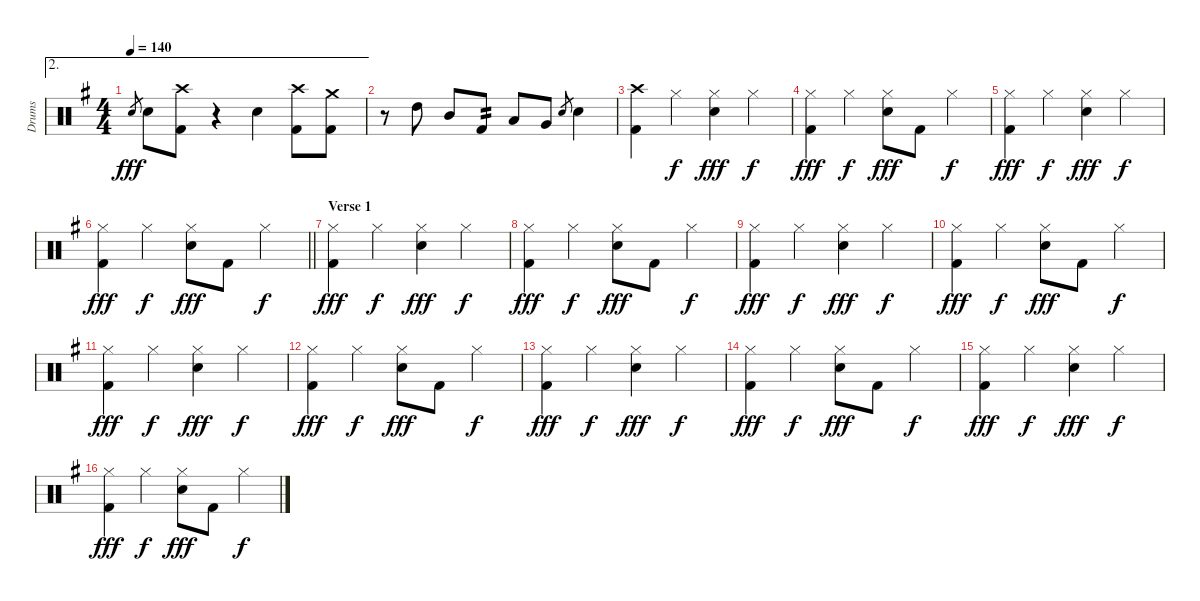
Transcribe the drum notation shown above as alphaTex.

\track ("Drums" "Drums") {instrument percussion}
\staff {score}
\articulation defaults
\ae 2
\ts (4 4)
\tempo 140
\clef neutral
\ks eminor "Electric Snare (hit)".8{gr dy fff} "Electric Snare (hit)".8
("Crash high (hit)" "Kick (hit) 2").8 r.4 "Electric Snare (hit)".4 ("Crash high (hit)" "Kick (hit) 2").8 ("Crash medium (hit)" "Kick (hit) 2").8 |
r.8 "High Tom (hit)".8 "Mid Tom (hit)".8 "Kick (hit) 2".8{tp 2} "Low Tom (hit)".8 "Very Low Tom (hit)".8 "Electric Snare (hit)".8{gr} "Electric Snare (hit)".4 |
("Crash high (hit)" "Kick (hit) 2").4 "Hi-Hat (closed)".4{dy f} ("Electric Snare (hit)" "Hi-Hat (closed)").4{dy fff} "Hi-Hat (closed)".4{dy f} |
("Hi-Hat (closed)" "Kick (hit) 2").4{dy fff} "Hi-Hat (closed)".4{dy f} ("Electric Snare (hit)" "Hi-Hat (closed)").8{dy fff} "Kick (hit) 2".8 "Hi-Hat (closed)".4{dy f} |
("Hi-Hat (closed)" "Kick (hit) 2").4{dy fff} "Hi-Hat (closed)".4{dy f} ("Electric Snare (hit)" "Hi-Hat (closed)").4{dy fff} "Hi-Hat (closed)".4{dy f} |
\barLineRight lightlight
("Hi-Hat (closed)" "Kick (hit) 2").4{dy fff} "Hi-Hat (closed)".4{dy f} ("Electric Snare (hit)" "Hi-Hat (closed)").8{dy fff} "Kick (hit) 2".8 "Hi-Hat (closed)".4{dy f} |
\section ("" "Verse 1")
("Hi-Hat (closed)" "Kick (hit) 2").4{dy fff} "Hi-Hat (closed)".4{dy f} ("Electric Snare (hit)" "Hi-Hat (closed)").4{dy fff} "Hi-Hat (closed)".4{dy f} |
("Hi-Hat (closed)" "Kick (hit) 2").4{dy fff} "Hi-Hat (closed)".4{dy f} ("Electric Snare (hit)" "Hi-Hat (closed)").8{dy fff} "Kick (hit) 2".8 "Hi-Hat (closed)".4{dy f} |
("Hi-Hat (closed)" "Kick (hit) 2").4{dy fff} "Hi-Hat (closed)".4{dy f} ("Electric Snare (hit)" "Hi-Hat (closed)").4{dy fff} "Hi-Hat (closed)".4{dy f} |
("Hi-Hat (closed)" "Kick (hit) 2").4{dy fff} "Hi-Hat (closed)".4{dy f} ("Electric Snare (hit)" "Hi-Hat (closed)").8{dy fff} "Kick (hit) 2".8 "Hi-Hat (closed)".4{dy f} |
("Hi-Hat (closed)" "Kick (hit) 2").4{dy fff} "Hi-Hat (closed)".4{dy f} ("Electric Snare (hit)" "Hi-Hat (closed)").4{dy fff} "Hi-Hat (closed)".4{dy f} |
("Hi-Hat (closed)" "Kick (hit) 2").4{dy fff} "Hi-Hat (closed)".4{dy f} ("Electric Snare (hit)" "Hi-Hat (closed)").8{dy fff} "Kick (hit) 2".8 "Hi-Hat (closed)".4{dy f} |
("Hi-Hat (closed)" "Kick (hit) 2").4{dy fff} "Hi-Hat (closed)".4{dy f} ("Electric Snare (hit)" "Hi-Hat (closed)").4{dy fff} "Hi-Hat (closed)".4{dy f} |
("Hi-Hat (closed)" "Kick (hit) 2").4{dy fff} "Hi-Hat (closed)".4{dy f} ("Electric Snare (hit)" "Hi-Hat (closed)").8{dy fff} "Kick (hit) 2".8 "Hi-Hat (closed)".4{dy f} |
("Hi-Hat (closed)" "Kick (hit) 2").4{dy fff} "Hi-Hat (closed)".4{dy f} ("Electric Snare (hit)" "Hi-Hat (closed)").4{dy fff} "Hi-Hat (closed)".4{dy f} |
("Hi-Hat (closed)" "Kick (hit) 2").4{dy fff} "Hi-Hat (closed)".4{dy f} ("Electric Snare (hit)" "Hi-Hat (closed)").8{dy fff} "Kick (hit) 2".8 "Hi-Hat (closed)".4{dy f}
